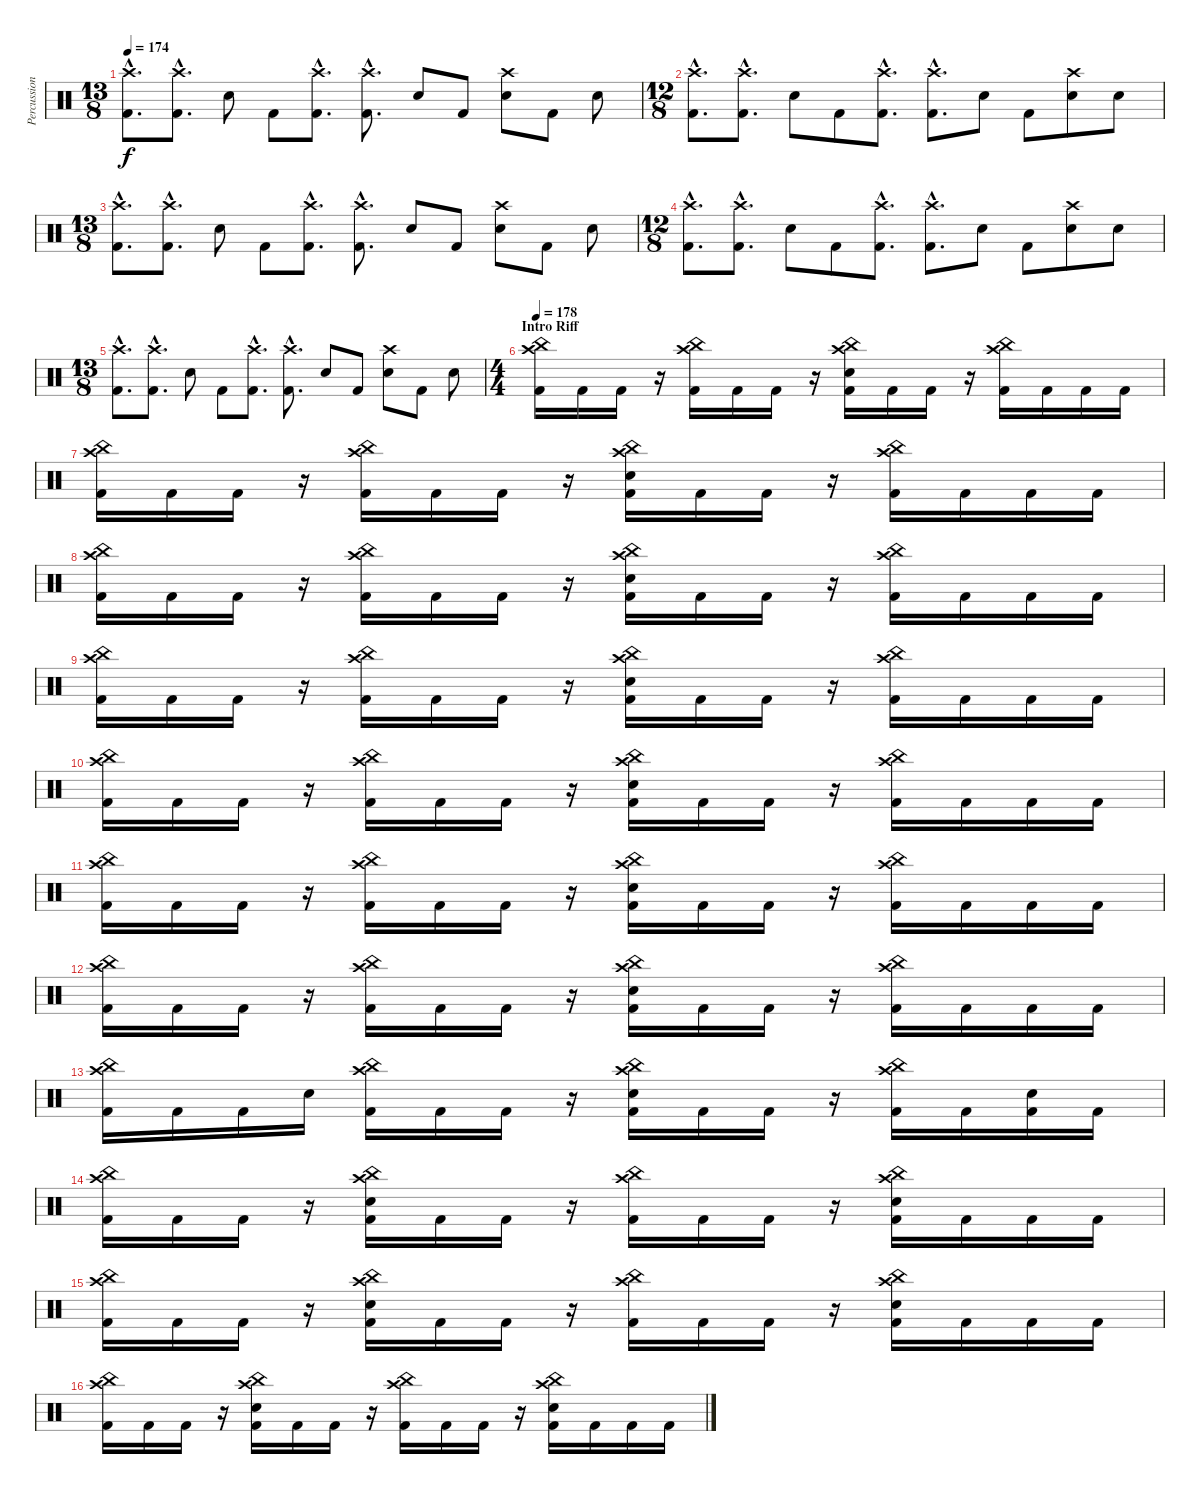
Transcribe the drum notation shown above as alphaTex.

\track ("Percussion" "Percussion") {instrument percussion}
\staff {score}
\articulation defaults
\ts (13 8)
\tempo 174
\clef neutral
\ks c
("Crash high (hit)"{hac} "Kick (hit) 2"{hac}).8{d dy f} ("Crash high (hit)"{hac} "Kick (hit) 2"{hac}).8{d} "Electric Snare (hit)".8 "Kick (hit) 2".8 ("Crash high (hit)"{hac} "Kick (hit) 2"{hac}).8{d} ("Crash high (hit)"{hac} "Kick (hit) 2"{hac}).8{d} "Electric Snare (hit)".8 "Kick (hit) 2".8 ("Crash high (hit)" "Electric Snare (hit)").8 "Kick (hit) 2".8 "Electric Snare (hit)".8 |
\ts (12 8)
("Crash high (hit)"{hac} "Kick (hit) 2"{hac}).8{d} ("Crash high (hit)"{hac} "Kick (hit) 2"{hac}).8{d} "Electric Snare (hit)".8 "Kick (hit) 2".8 ("Crash high (hit)"{hac} "Kick (hit) 2"{hac}).8{d} ("Crash high (hit)"{hac} "Kick (hit) 2"{hac}).8{d} "Electric Snare (hit)".8 "Kick (hit) 2".8 ("Crash high (hit)" "Electric Snare (hit)").8 "Electric Snare (hit)".8 |
\ts (13 8)
("Crash high (hit)"{hac} "Kick (hit) 2"{hac}).8{d} ("Crash high (hit)"{hac} "Kick (hit) 2"{hac}).8{d} "Electric Snare (hit)".8 "Kick (hit) 2".8 ("Crash high (hit)"{hac} "Kick (hit) 2"{hac}).8{d} ("Crash high (hit)"{hac} "Kick (hit) 2"{hac}).8{d} "Electric Snare (hit)".8 "Kick (hit) 2".8 ("Crash high (hit)" "Electric Snare (hit)").8 "Kick (hit) 2".8 "Electric Snare (hit)".8 |
\ts (12 8)
("Crash high (hit)"{hac} "Kick (hit) 2"{hac}).8{d} ("Crash high (hit)"{hac} "Kick (hit) 2"{hac}).8{d} "Electric Snare (hit)".8 "Kick (hit) 2".8 ("Crash high (hit)"{hac} "Kick (hit) 2"{hac}).8{d} ("Crash high (hit)"{hac} "Kick (hit) 2"{hac}).8{d} "Electric Snare (hit)".8 "Kick (hit) 2".8 ("Crash high (hit)" "Electric Snare (hit)").8 "Electric Snare (hit)".8 |
\ts (13 8)
("Crash high (hit)"{hac} "Kick (hit) 2"{hac}).8{d} ("Crash high (hit)"{hac} "Kick (hit) 2"{hac}).8{d} "Electric Snare (hit)".8 "Kick (hit) 2".8 ("Crash high (hit)"{hac} "Kick (hit) 2"{hac}).8{d} ("Crash high (hit)"{hac} "Kick (hit) 2"{hac}).8{d} "Electric Snare (hit)".8 "Kick (hit) 2".8 ("Crash high (hit)" "Electric Snare (hit)").8 "Kick (hit) 2".8 "Electric Snare (hit)".8 |
\ts (4 4)
\section ("" "Intro Riff")
\tempo 178
("China (hit)" "Crash high (hit)" "Kick (hit) 2").16 "Kick (hit) 2".16 "Kick (hit) 2".16 r.16 ("China (hit)" "Crash high (hit)" "Kick (hit) 2").16 "Kick (hit) 2".16 "Kick (hit) 2".16 r.16 ("China (hit)" "Crash high (hit)" "Electric Snare (hit)" "Kick (hit) 2").16 "Kick (hit) 2".16 "Kick (hit) 2".16 r.16 ("China (hit)" "Crash high (hit)" "Kick (hit) 2").16 "Kick (hit) 2".16 "Kick (hit) 2".16 "Kick (hit) 2".16 |
("China (hit)" "Crash high (hit)" "Kick (hit) 2").16 "Kick (hit) 2".16 "Kick (hit) 2".16 r.16 ("China (hit)" "Crash high (hit)" "Kick (hit) 2").16 "Kick (hit) 2".16 "Kick (hit) 2".16 r.16 ("China (hit)" "Crash high (hit)" "Electric Snare (hit)" "Kick (hit) 2").16 "Kick (hit) 2".16 "Kick (hit) 2".16 r.16 ("China (hit)" "Crash high (hit)" "Kick (hit) 2").16 "Kick (hit) 2".16 "Kick (hit) 2".16 "Kick (hit) 2".16 |
("China (hit)" "Crash high (hit)" "Kick (hit) 2").16 "Kick (hit) 2".16 "Kick (hit) 2".16 r.16 ("China (hit)" "Crash high (hit)" "Kick (hit) 2").16 "Kick (hit) 2".16 "Kick (hit) 2".16 r.16 ("China (hit)" "Crash high (hit)" "Electric Snare (hit)" "Kick (hit) 2").16 "Kick (hit) 2".16 "Kick (hit) 2".16 r.16 ("China (hit)" "Crash high (hit)" "Kick (hit) 2").16 "Kick (hit) 2".16 "Kick (hit) 2".16 "Kick (hit) 2".16 |
("China (hit)" "Crash high (hit)" "Kick (hit) 2").16 "Kick (hit) 2".16 "Kick (hit) 2".16 r.16 ("China (hit)" "Crash high (hit)" "Kick (hit) 2").16 "Kick (hit) 2".16 "Kick (hit) 2".16 r.16 ("China (hit)" "Crash high (hit)" "Electric Snare (hit)" "Kick (hit) 2").16 "Kick (hit) 2".16 "Kick (hit) 2".16 r.16 ("China (hit)" "Crash high (hit)" "Kick (hit) 2").16 "Kick (hit) 2".16 "Kick (hit) 2".16 "Kick (hit) 2".16 |
("China (hit)" "Crash high (hit)" "Kick (hit) 2").16 "Kick (hit) 2".16 "Kick (hit) 2".16 r.16 ("China (hit)" "Crash high (hit)" "Kick (hit) 2").16 "Kick (hit) 2".16 "Kick (hit) 2".16 r.16 ("China (hit)" "Crash high (hit)" "Electric Snare (hit)" "Kick (hit) 2").16 "Kick (hit) 2".16 "Kick (hit) 2".16 r.16 ("China (hit)" "Crash high (hit)" "Kick (hit) 2").16 "Kick (hit) 2".16 "Kick (hit) 2".16 "Kick (hit) 2".16 |
("China (hit)" "Crash high (hit)" "Kick (hit) 2").16 "Kick (hit) 2".16 "Kick (hit) 2".16 r.16 ("China (hit)" "Crash high (hit)" "Kick (hit) 2").16 "Kick (hit) 2".16 "Kick (hit) 2".16 r.16 ("China (hit)" "Crash high (hit)" "Electric Snare (hit)" "Kick (hit) 2").16 "Kick (hit) 2".16 "Kick (hit) 2".16 r.16 ("China (hit)" "Crash high (hit)" "Kick (hit) 2").16 "Kick (hit) 2".16 "Kick (hit) 2".16 "Kick (hit) 2".16 |
("China (hit)" "Crash high (hit)" "Kick (hit) 2").16 "Kick (hit) 2".16 "Kick (hit) 2".16 r.16 ("China (hit)" "Crash high (hit)" "Kick (hit) 2").16 "Kick (hit) 2".16 "Kick (hit) 2".16 r.16 ("China (hit)" "Crash high (hit)" "Electric Snare (hit)" "Kick (hit) 2").16 "Kick (hit) 2".16 "Kick (hit) 2".16 r.16 ("China (hit)" "Crash high (hit)" "Kick (hit) 2").16 "Kick (hit) 2".16 "Kick (hit) 2".16 "Kick (hit) 2".16 |
("China (hit)" "Crash high (hit)" "Kick (hit) 2").16 "Kick (hit) 2".16 "Kick (hit) 2".16 "Electric Snare (hit)".16 ("China (hit)" "Crash high (hit)" "Kick (hit) 2").16 "Kick (hit) 2".16 "Kick (hit) 2".16 r.16 ("China (hit)" "Crash high (hit)" "Electric Snare (hit)" "Kick (hit) 2").16 "Kick (hit) 2".16 "Kick (hit) 2".16 r.16 ("China (hit)" "Crash high (hit)" "Kick (hit) 2").16 "Kick (hit) 2".16 ("Electric Snare (hit)" "Kick (hit) 2").16 "Kick (hit) 2".16 |
("China (hit)" "Crash high (hit)" "Kick (hit) 2").16 "Kick (hit) 2".16 "Kick (hit) 2".16 r.16 ("China (hit)" "Crash high (hit)" "Electric Snare (hit)" "Kick (hit) 2").16 "Kick (hit) 2".16 "Kick (hit) 2".16 r.16 ("China (hit)" "Crash high (hit)" "Kick (hit) 2").16 "Kick (hit) 2".16 "Kick (hit) 2".16 r.16 ("China (hit)" "Crash high (hit)" "Electric Snare (hit)" "Kick (hit) 2").16 "Kick (hit) 2".16 "Kick (hit) 2".16 "Kick (hit) 2".16 |
("China (hit)" "Crash high (hit)" "Kick (hit) 2").16 "Kick (hit) 2".16 "Kick (hit) 2".16 r.16 ("China (hit)" "Crash high (hit)" "Electric Snare (hit)" "Kick (hit) 2").16 "Kick (hit) 2".16 "Kick (hit) 2".16 r.16 ("China (hit)" "Crash high (hit)" "Kick (hit) 2").16 "Kick (hit) 2".16 "Kick (hit) 2".16 r.16 ("China (hit)" "Crash high (hit)" "Electric Snare (hit)" "Kick (hit) 2").16 "Kick (hit) 2".16 "Kick (hit) 2".16 "Kick (hit) 2".16 |
("China (hit)" "Crash high (hit)" "Kick (hit) 2").16 "Kick (hit) 2".16 "Kick (hit) 2".16 r.16 ("China (hit)" "Crash high (hit)" "Electric Snare (hit)" "Kick (hit) 2").16 "Kick (hit) 2".16 "Kick (hit) 2".16 r.16 ("China (hit)" "Crash high (hit)" "Kick (hit) 2").16 "Kick (hit) 2".16 "Kick (hit) 2".16 r.16 ("China (hit)" "Crash high (hit)" "Electric Snare (hit)" "Kick (hit) 2").16 "Kick (hit) 2".16 "Kick (hit) 2".16 "Kick (hit) 2".16
